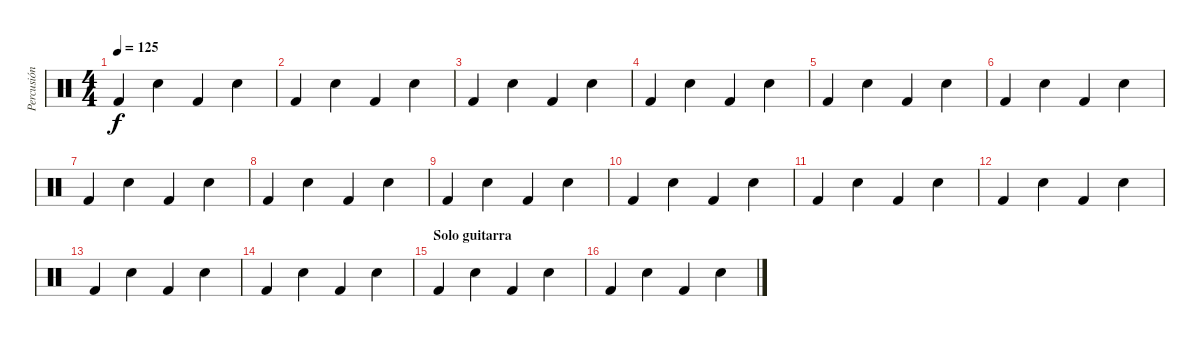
\track ("Percusión" "Percusión") {instrument percussion}
\staff {score}
\articulation defaults
\ts (4 4)
\tempo 125
\clef neutral
\ks c "Kick (hit) 2".4{dy f} "Electric Snare (hit)".4 "Kick (hit) 2".4 "Electric Snare (hit)".4
|
"Kick (hit) 2".4 "Electric Snare (hit)".4 "Kick (hit) 2".4 "Electric Snare (hit)".4 |
"Kick (hit) 2".4 "Electric Snare (hit)".4 "Kick (hit) 2".4 "Electric Snare (hit)".4 |
"Kick (hit) 2".4 "Electric Snare (hit)".4 "Kick (hit) 2".4 "Electric Snare (hit)".4 |
"Kick (hit) 2".4 "Electric Snare (hit)".4 "Kick (hit) 2".4 "Electric Snare (hit)".4 |
"Kick (hit) 2".4 "Electric Snare (hit)".4 "Kick (hit) 2".4 "Electric Snare (hit)".4 |
"Kick (hit) 2".4 "Electric Snare (hit)".4 "Kick (hit) 2".4 "Electric Snare (hit)".4 |
"Kick (hit) 2".4 "Electric Snare (hit)".4 "Kick (hit) 2".4 "Electric Snare (hit)".4 |
"Kick (hit) 2".4 "Electric Snare (hit)".4 "Kick (hit) 2".4 "Electric Snare (hit)".4 |
"Kick (hit) 2".4 "Electric Snare (hit)".4 "Kick (hit) 2".4 "Electric Snare (hit)".4 |
"Kick (hit) 2".4 "Electric Snare (hit)".4 "Kick (hit) 2".4 "Electric Snare (hit)".4 |
"Kick (hit) 2".4 "Electric Snare (hit)".4 "Kick (hit) 2".4 "Electric Snare (hit)".4 |
"Kick (hit) 2".4 "Electric Snare (hit)".4 "Kick (hit) 2".4 "Electric Snare (hit)".4 |
"Kick (hit) 2".4 "Electric Snare (hit)".4 "Kick (hit) 2".4 "Electric Snare (hit)".4 |
\section ("" "Solo guitarra")
"Kick (hit) 2".4 "Electric Snare (hit)".4 "Kick (hit) 2".4 "Electric Snare (hit)".4 |
"Kick (hit) 2".4 "Electric Snare (hit)".4 "Kick (hit) 2".4 "Electric Snare (hit)".4
